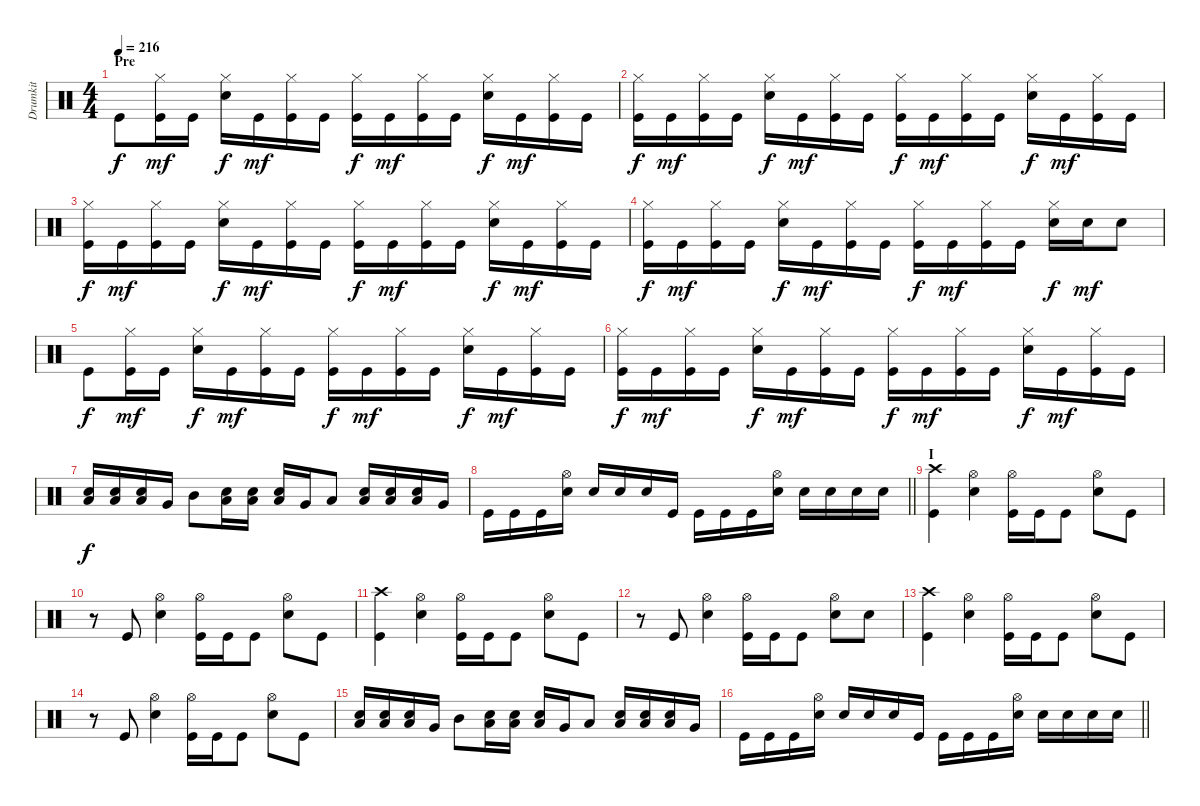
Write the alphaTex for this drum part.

\track ("Drumkit" "Drumkit") {instrument percussion}
\staff {score}
\articulation defaults
\ts (4 4)
\section ("" "Pre")
\tempo 216
\clef neutral
\ks c "Kick (hit)".8{dy f}
("Kick (hit)" "Hi-Hat (closed)").16{dy mf} "Kick (hit)".16 ("Snare (hit) 2" "Hi-Hat (closed)").16{dy f} "Kick (hit)".16{dy mf} ("Kick (hit)" "Hi-Hat (closed)").16 "Kick (hit)".16 ("Kick (hit)" "Hi-Hat (closed)").16{dy f} "Kick (hit)".16{dy mf} ("Kick (hit)" "Hi-Hat (closed)").16 "Kick (hit)".16 ("Snare (hit) 2" "Hi-Hat (closed)").16{dy f} "Kick (hit)".16{dy mf} ("Kick (hit)" "Hi-Hat (closed)").16 "Kick (hit)".16 |
("Kick (hit)" "Hi-Hat (closed)").16{dy f} "Kick (hit)".16{dy mf} ("Kick (hit)" "Hi-Hat (closed)").16 "Kick (hit)".16 ("Snare (hit) 2" "Hi-Hat (closed)").16{dy f} "Kick (hit)".16{dy mf} ("Kick (hit)" "Hi-Hat (closed)").16 "Kick (hit)".16 ("Kick (hit)" "Hi-Hat (closed)").16{dy f} "Kick (hit)".16{dy mf} ("Kick (hit)" "Hi-Hat (closed)").16 "Kick (hit)".16 ("Snare (hit) 2" "Hi-Hat (closed)").16{dy f} "Kick (hit)".16{dy mf} ("Kick (hit)" "Hi-Hat (closed)").16 "Kick (hit)".16 |
("Kick (hit)" "Hi-Hat (closed)").16{dy f} "Kick (hit)".16{dy mf} ("Kick (hit)" "Hi-Hat (closed)").16 "Kick (hit)".16 ("Snare (hit) 2" "Hi-Hat (closed)").16{dy f} "Kick (hit)".16{dy mf} ("Kick (hit)" "Hi-Hat (closed)").16 "Kick (hit)".16 ("Kick (hit)" "Hi-Hat (closed)").16{dy f} "Kick (hit)".16{dy mf} ("Kick (hit)" "Hi-Hat (closed)").16 "Kick (hit)".16 ("Snare (hit) 2" "Hi-Hat (closed)").16{dy f} "Kick (hit)".16{dy mf} ("Kick (hit)" "Hi-Hat (closed)").16 "Kick (hit)".16 |
("Kick (hit)" "Hi-Hat (closed)").16{dy f} "Kick (hit)".16{dy mf} ("Kick (hit)" "Hi-Hat (closed)").16 "Kick (hit)".16 ("Snare (hit) 2" "Hi-Hat (closed)").16{dy f} "Kick (hit)".16{dy mf} ("Kick (hit)" "Hi-Hat (closed)").16 "Kick (hit)".16 ("Kick (hit)" "Hi-Hat (closed)").16{dy f} "Kick (hit)".16{dy mf} ("Kick (hit)" "Hi-Hat (closed)").16 "Kick (hit)".16 ("Snare (hit) 2" "Hi-Hat (closed)").16{dy f} "Snare (hit) 2".16{dy mf} "Snare (hit) 2".8 |
"Kick (hit)".8{dy f} ("Kick (hit)" "Hi-Hat (closed)").16{dy mf} "Kick (hit)".16 ("Snare (hit) 2" "Hi-Hat (closed)").16{dy f} "Kick (hit)".16{dy mf} ("Kick (hit)" "Hi-Hat (closed)").16 "Kick (hit)".16 ("Kick (hit)" "Hi-Hat (closed)").16{dy f} "Kick (hit)".16{dy mf} ("Kick (hit)" "Hi-Hat (closed)").16 "Kick (hit)".16 ("Snare (hit) 2" "Hi-Hat (closed)").16{dy f} "Kick (hit)".16{dy mf} ("Kick (hit)" "Hi-Hat (closed)").16 "Kick (hit)".16 |
("Kick (hit)" "Hi-Hat (closed)").16{dy f} "Kick (hit)".16{dy mf} ("Kick (hit)" "Hi-Hat (closed)").16 "Kick (hit)".16 ("Snare (hit) 2" "Hi-Hat (closed)").16{dy f} "Kick (hit)".16{dy mf} ("Kick (hit)" "Hi-Hat (closed)").16 "Kick (hit)".16 ("Kick (hit)" "Hi-Hat (closed)").16{dy f} "Kick (hit)".16{dy mf} ("Kick (hit)" "Hi-Hat (closed)").16 "Kick (hit)".16 ("Snare (hit) 2" "Hi-Hat (closed)").16{dy f} "Kick (hit)".16{dy mf} ("Kick (hit)" "Hi-Hat (closed)").16 "Kick (hit)".16 |
("Low Tom (hit)" "Snare (hit) 2").16{dy f} ("Low Tom (hit)" "Snare (hit) 2").16 ("Low Tom (hit)" "Snare (hit) 2").16 "Very Low Tom (hit)".16 "Mid Tom (hit)".8 ("Low Tom (hit)" "Snare (hit) 2").16 ("Low Tom (hit)" "Snare (hit) 2").16 ("Low Tom (hit)" "Snare (hit) 2").16 "Very Low Tom (hit)".16 "Low Tom (hit)".8 ("Low Tom (hit)" "Snare (hit) 2").16 ("Low Tom (hit)" "Snare (hit) 2").16 ("Low Tom (hit)" "Snare (hit) 2").16 "Very Low Tom (hit)".16 |
\barLineRight lightlight "Kick (hit)".16 "Kick (hit)".16 "Kick (hit)".16
("Snare (hit) 2" "Hi-Hat (open)").16 "Snare (hit) 2".16 "Snare (hit) 2".16 "Snare (hit) 2".16 "Kick (hit)".16 "Kick (hit)".16 "Kick (hit)".16 "Kick (hit)".16 ("Snare (hit) 2" "Hi-Hat (open)").16 "Snare (hit) 2".16 "Snare (hit) 2".16 "Snare (hit) 2".16 "Snare (hit) 2".16 |
\section ("" "I")
("Kick (hit)" "Crash high (hit)").4 ("Snare (hit) 2" "Hi-Hat (open)").4 ("Kick (hit)" "Hi-Hat (open)").16 "Kick (hit)".16 "Kick (hit)".8 ("Snare (hit) 2" "Hi-Hat (open)").8 "Kick (hit)".8 |
r.8 "Kick (hit)".8 ("Snare (hit) 2" "Hi-Hat (open)").4 ("Kick (hit)" "Hi-Hat (open)").16 "Kick (hit)".16 "Kick (hit)".8 ("Snare (hit) 2" "Hi-Hat (open)").8 "Kick (hit)".8 |
("Kick (hit)" "Crash high (hit)").4 ("Snare (hit) 2" "Hi-Hat (open)").4 ("Kick (hit)" "Hi-Hat (open)").16 "Kick (hit)".16 "Kick (hit)".8 ("Snare (hit) 2" "Hi-Hat (open)").8 "Kick (hit)".8 |
r.8 "Kick (hit)".8 ("Snare (hit) 2" "Hi-Hat (open)").4 ("Kick (hit)" "Hi-Hat (open)").16 "Kick (hit)".16 "Kick (hit)".8 ("Snare (hit) 2" "Hi-Hat (open)").8 "Snare (hit) 2".8 |
("Kick (hit)" "Crash high (hit)").4 ("Snare (hit) 2" "Hi-Hat (open)").4 ("Kick (hit)" "Hi-Hat (open)").16 "Kick (hit)".16 "Kick (hit)".8 ("Snare (hit) 2" "Hi-Hat (open)").8 "Kick (hit)".8 |
r.8 "Kick (hit)".8 ("Snare (hit) 2" "Hi-Hat (open)").4 ("Kick (hit)" "Hi-Hat (open)").16 "Kick (hit)".16 "Kick (hit)".8 ("Snare (hit) 2" "Hi-Hat (open)").8 "Kick (hit)".8 |
("Low Tom (hit)" "Snare (hit) 2").16 ("Low Tom (hit)" "Snare (hit) 2").16 ("Low Tom (hit)" "Snare (hit) 2").16 "Very Low Tom (hit)".16 "Mid Tom (hit)".8 ("Low Tom (hit)" "Snare (hit) 2").16 ("Low Tom (hit)" "Snare (hit) 2").16 ("Low Tom (hit)" "Snare (hit) 2").16 "Very Low Tom (hit)".16 "Low Tom (hit)".8 ("Low Tom (hit)" "Snare (hit) 2").16 ("Low Tom (hit)" "Snare (hit) 2").16 ("Low Tom (hit)" "Snare (hit) 2").16 "Very Low Tom (hit)".16 |
\barLineRight lightlight "Kick (hit)".16 "Kick (hit)".16 "Kick (hit)".16
("Snare (hit) 2" "Hi-Hat (open)").16 "Snare (hit) 2".16 "Snare (hit) 2".16 "Snare (hit) 2".16 "Kick (hit)".16 "Kick (hit)".16 "Kick (hit)".16 "Kick (hit)".16 ("Snare (hit) 2" "Hi-Hat (open)").16 "Snare (hit) 2".16 "Snare (hit) 2".16 "Snare (hit) 2".16 "Snare (hit) 2".16
